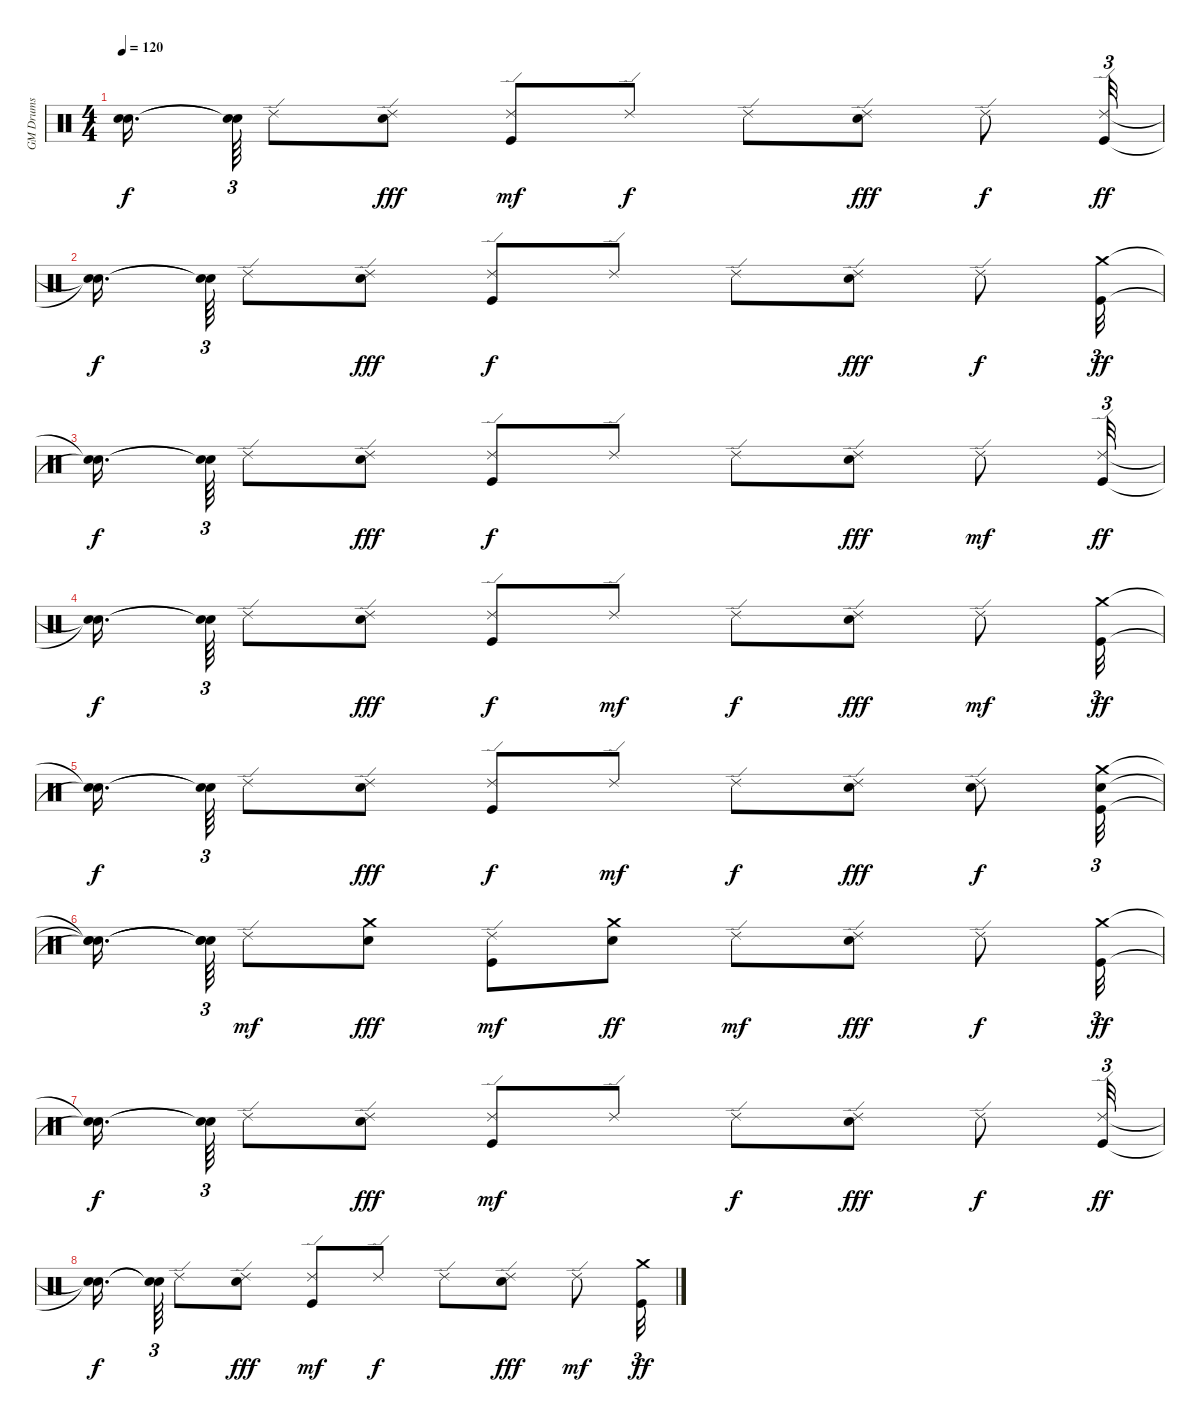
\track ("GM Drums" "GM Drums") {instrument percussion}
\staff {score}
\articulation defaults
\ts (4 4)
\tempo 120
\clef neutral
\ks c
("Snare (hit)"{t} "Snare (hit)"{t}).16{d dy f} ("Snare (hit)"{t} "Snare (hit)"{t}).64{tu (3 2)} "Ride (edge) 2".8 ("Snare (hit) 2" "Ride (edge) 2").8{dy fff} ("Kick (hit)" "Ride (edge) 2").8{dy mf} "Ride (edge) 2".8{dy f} "Ride (edge) 2".8 ("Snare (hit) 2" "Ride (edge) 2").8{dy fff} "Ride (edge) 2".8{dy f} ("Kick (hit)" "Ride (edge) 2").32{tu (3 2) dy ff} |
("Snare (hit)"{t} "Snare (hit)"{t}).16{d dy f} ("Snare (hit)"{t} "Snare (hit)"{t}).64{tu (3 2)} "Ride (edge) 2".8 ("Snare (hit) 2" "Ride (edge) 2").8{dy fff} ("Kick (hit)" "Ride (edge) 2").8{dy f} "Ride (edge) 2".8 "Ride (edge) 2".8 ("Snare (hit) 2" "Ride (edge) 2").8{dy fff} "Ride (edge) 2".8{dy f} ("Kick (hit)" "Crash medium (hit)").32{tu (3 2) dy ff} |
("Snare (hit)"{t} "Snare (hit)"{t}).16{d dy f} ("Snare (hit)"{t} "Snare (hit)"{t}).64{tu (3 2)} "Ride (edge) 2".8 ("Snare (hit) 2" "Ride (edge) 2").8{dy fff} ("Kick (hit)" "Ride (edge) 2").8{dy f} "Ride (edge) 2".8 "Ride (edge) 2".8 ("Snare (hit) 2" "Ride (edge) 2").8{dy fff} "Ride (edge) 2".8{dy mf} ("Kick (hit)" "Ride (edge) 2").32{tu (3 2) dy ff} |
("Snare (hit)"{t} "Snare (hit)"{t}).16{d dy f} ("Snare (hit)"{t} "Snare (hit)"{t}).64{tu (3 2)} "Ride (edge) 2".8 ("Snare (hit) 2" "Ride (edge) 2").8{dy fff} ("Kick (hit)" "Ride (edge) 2").8{dy f} "Ride (edge) 2".8{dy mf} "Ride (edge) 2".8{dy f} ("Snare (hit) 2" "Ride (edge) 2").8{dy fff} "Ride (edge) 2".8{dy mf} ("Kick (hit)" "Crash medium (hit)").32{tu (3 2) dy ff} |
("Snare (hit)"{t} "Snare (hit)"{t}).16{d dy f} ("Snare (hit)"{t} "Snare (hit)"{t}).64{tu (3 2)} "Ride (edge) 2".8 ("Snare (hit) 2" "Ride (edge) 2").8{dy fff} ("Kick (hit)" "Ride (edge) 2").8{dy f} "Ride (edge) 2".8{dy mf} "Ride (edge) 2".8{dy f} ("Snare (hit) 2" "Ride (edge) 2").8{dy fff} ("Snare (hit) 2" "Ride (edge) 2").8{dy f} ("Kick (hit)" "Snare (hit) 2" "Crash medium (hit)").32{tu (3 2)} |
("Snare (hit)"{t} "Snare (hit)"{t} "Snare (hit)"{t}).16{d} ("Snare (hit)"{t} "Snare (hit)"{t} "Snare (hit)"{t}).64{tu (3 2)} "Ride (edge) 2".8{dy mf} ("Snare (hit) 2" "Crash medium (hit)").8{dy fff} ("Kick (hit)" "Ride (edge) 2").8{dy mf} ("Snare (hit) 2" "Crash medium (hit)").8{dy ff} "Ride (edge) 2".8{dy mf} ("Snare (hit) 2" "Ride (edge) 2").8{dy fff} "Ride (edge) 2".8{dy f} ("Kick (hit)" "Crash medium (hit)").32{tu (3 2) dy ff} |
("Snare (hit)"{t} "Snare (hit)"{t}).16{d dy f} ("Snare (hit)"{t} "Snare (hit)"{t}).64{tu (3 2)} "Ride (edge) 2".8 ("Snare (hit) 2" "Ride (edge) 2").8{dy fff} ("Kick (hit)" "Ride (edge) 2").8{dy mf} "Ride (edge) 2".8 "Ride (edge) 2".8{dy f} ("Snare (hit) 2" "Ride (edge) 2").8{dy fff} "Ride (edge) 2".8{dy f} ("Kick (hit)" "Ride (edge) 2").32{tu (3 2) dy ff} |
("Snare (hit)"{t} "Snare (hit)"{t}).16{d dy f} ("Snare (hit)"{t} "Snare (hit)"{t}).64{tu (3 2)} "Ride (edge) 2".8 ("Snare (hit) 2" "Ride (edge) 2").8{dy fff} ("Kick (hit)" "Ride (edge) 2").8{dy mf} "Ride (edge) 2".8{dy f} "Ride (edge) 2".8 ("Snare (hit) 2" "Ride (edge) 2").8{dy fff} "Ride (edge) 2".8{dy mf} ("Kick (hit)" "Crash medium (hit)").32{tu (3 2) dy ff}
